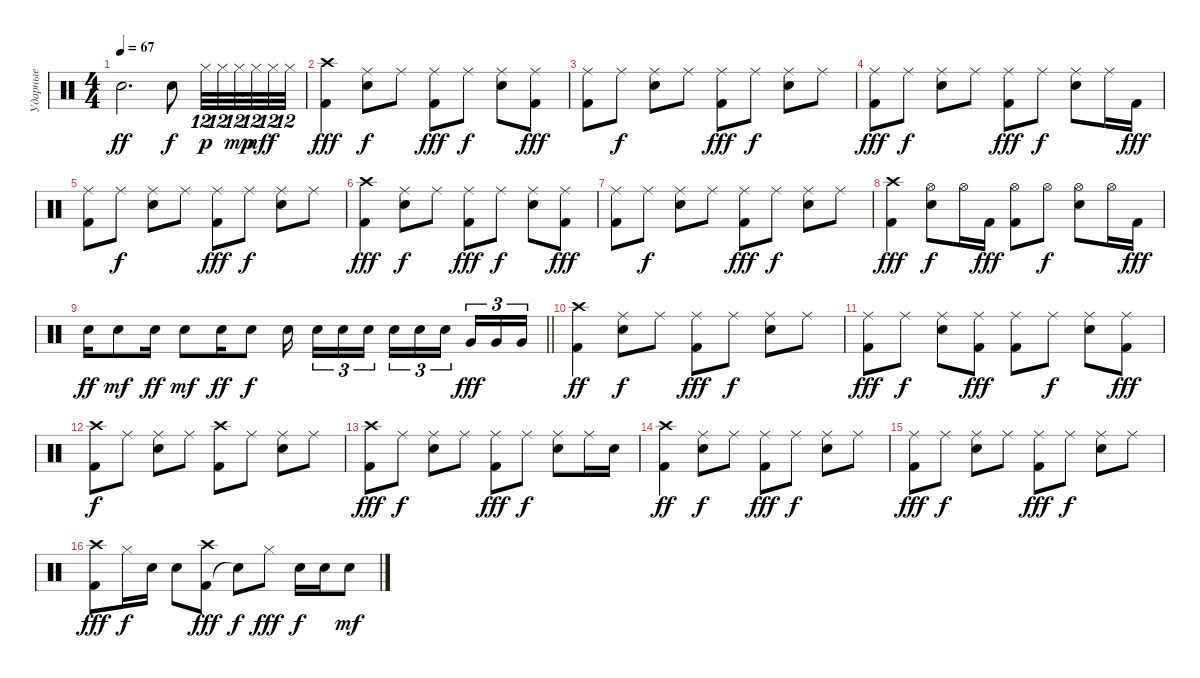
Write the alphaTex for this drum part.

\track ("Ударные" "Ударные") {instrument percussion}
\staff
\articulation defaults
\ts (4 4)
\tempo 67
\clef neutral
\ks c "Snare (hit) 2".2{d dy ff} "Snare (hit) 2".8{dy f} "Hi-Hat (closed)".32{tu (12 8) dy p} "Hi-Hat (closed)".32{tu (12 8)} "Hi-Hat (closed)".32{tu (12 8) dy mp beam splitsecondary} "Hi-Hat (closed)".32{tu (12 8) dy mf} "Hi-Hat (closed)".32{tu (12 8) dy f} "Hi-Hat (closed)".32{tu (12 8)}
|
("Kick (hit) 2" "Crash high (hit)").4{dy fff} ("Snare (hit) 2" "Ride (middle)").8{dy f} "Ride (middle)".8 ("Kick (hit) 2" "Ride (middle)").8{dy fff} "Ride (middle)".8{dy f} ("Snare (hit) 2" "Ride (middle)").8 ("Kick (hit) 2" "Ride (middle)").8{dy fff} |
("Kick (hit) 2" "Ride (middle)").8 "Ride (middle)".8{dy f} ("Snare (hit) 2" "Ride (middle)").8 "Ride (middle)".8 ("Kick (hit) 2" "Ride (middle)").8{dy fff} "Ride (middle)".8{dy f} ("Snare (hit) 2" "Ride (middle)").8 "Ride (middle)".8 |
("Kick (hit) 2" "Ride (middle)").8{dy fff} "Ride (middle)".8{dy f} ("Snare (hit) 2" "Ride (middle)").8 "Ride (middle)".8 ("Kick (hit) 2" "Ride (middle)").8{dy fff} "Ride (middle)".8{dy f} ("Snare (hit) 2" "Ride (middle)").8 "Ride (middle)".16 "Kick (hit) 2".16{dy fff} |
("Kick (hit) 2" "Ride (middle)").8 "Ride (middle)".8{dy f} ("Snare (hit) 2" "Ride (middle)").8 "Ride (middle)".8 ("Kick (hit) 2" "Ride (middle)").8{dy fff} "Ride (middle)".8{dy f} ("Snare (hit) 2" "Ride (middle)").8 "Ride (middle)".8 |
("Kick (hit) 2" "Crash high (hit)").4{dy fff} ("Snare (hit) 2" "Ride (middle)").8{dy f} "Ride (middle)".8 ("Kick (hit) 2" "Ride (middle)").8{dy fff} "Ride (middle)".8{dy f} ("Snare (hit) 2" "Ride (middle)").8 ("Kick (hit) 2" "Ride (middle)").8{dy fff} |
("Kick (hit) 2" "Ride (middle)").8 "Ride (middle)".8{dy f} ("Snare (hit) 2" "Ride (middle)").8 "Ride (middle)".8 ("Kick (hit) 2" "Ride (middle)").8{dy fff} "Ride (middle)".8{dy f} ("Snare (hit) 2" "Ride (middle)").8 "Ride (middle)".8 |
("Kick (hit) 2" "Crash high (hit)").4{dy fff} ("Snare (hit) 2" "Hi-Hat (open)").8{dy f} "Hi-Hat (open)".16 "Kick (hit) 2".16{dy fff} ("Kick (hit) 2" "Hi-Hat (open)").8 "Hi-Hat (open)".8{dy f} ("Snare (hit) 2" "Hi-Hat (open)").8 "Hi-Hat (open)".16 "Kick (hit) 2".16{dy fff} |
\barLineRight lightlight "Snare (hit) 2".16{dy ff} "Snare (hit) 2".8{dy mf} "Snare (hit) 2".16{dy ff} "Snare (hit) 2".8{dy mf} "Snare (hit) 2".16{dy ff} "Snare (hit) 2".8{dy f} "Snare (hit) 2".16{beam splitsecondary} "Electric Snare (hit)".16{tu (3 2)} "Electric Snare (hit)".16{tu (3 2)} "Electric Snare (hit)".16{tu (3 2)} "Electric Snare (hit)".16{tu (3 2)} "Electric Snare (hit)".16{tu (3 2)} "Electric Snare (hit)".16{tu (3 2) beam splitsecondary} "Very Low Tom (hit)".16{tu (3 2) dy fff} "Very Low Tom (hit)".16{tu (3 2)} "Very Low Tom (hit)".16{tu (3 2)}
|
("Kick (hit) 2" "Crash high (hit)").4{dy ff} ("Snare (hit) 2" "Ride (middle)").8{dy f} "Ride (middle)".8 ("Kick (hit) 2" "Ride (middle)").8{dy fff} "Ride (middle)".8{dy f} ("Snare (hit) 2" "Ride (middle)").8 "Ride (middle)".8 |
("Kick (hit) 2" "Ride (middle)").8{dy fff} "Ride (middle)".8{dy f} ("Snare (hit) 2" "Ride (middle)").8 ("Kick (hit) 2" "Ride (middle)").8{dy fff} ("Kick (hit) 2" "Ride (middle)").8 "Ride (middle)".8{dy f} ("Snare (hit) 2" "Ride (middle)").8 ("Kick (hit) 2" "Ride (middle)").8{dy fff} |
("Kick (hit) 2" "Crash high (hit)").8{dy f} "Ride (middle)".8 ("Snare (hit) 2" "Ride (middle)").8 "Ride (middle)".8 ("Kick (hit) 2" "Crash high (hit)").8 "Ride (middle)".8 ("Snare (hit) 2" "Ride (middle)").8 "Ride (middle)".8 |
("Kick (hit) 2" "Crash high (hit)").8{dy fff} "Ride (middle)".8{dy f} ("Snare (hit) 2" "Ride (middle)").8 "Ride (middle)".8 ("Kick (hit) 2" "Ride (middle)").8{dy fff} "Ride (middle)".8{dy f} ("Snare (hit) 2" "Ride (middle)").8 "Ride (middle)".16 "Snare (hit) 2".16 |
("Kick (hit) 2" "Crash high (hit)").4{dy ff} ("Snare (hit) 2" "Ride (middle)").8{dy f} "Ride (middle)".8 ("Kick (hit) 2" "Ride (middle)").8{dy fff} "Ride (middle)".8{dy f} ("Snare (hit) 2" "Ride (middle)").8 "Ride (middle)".8 |
("Kick (hit) 2" "Ride (middle)").8{dy fff} "Ride (middle)".8{dy f} ("Snare (hit) 2" "Ride (middle)").8 "Ride (middle)".8 ("Kick (hit) 2" "Ride (middle)").8{dy fff} "Ride (middle)".8{dy f} ("Snare (hit) 2" "Ride (middle)").8 "Ride (middle)".8 |
("Kick (hit) 2" "Crash high (hit)").8{dy fff} "Hi-Hat (closed)".16{dy f} "Electric Snare (hit)".16 "Snare (hit) 2".8 ("Kick (hit) 2" "Crash high (hit)").8{dy fff} "Snare (hit)"{t}.8{dy f} "Hi-Hat (closed)".8{dy fff} "Electric Snare (hit)".16{dy f} "Electric Snare (hit)".16 "Electric Snare (hit)".8{dy mf}
